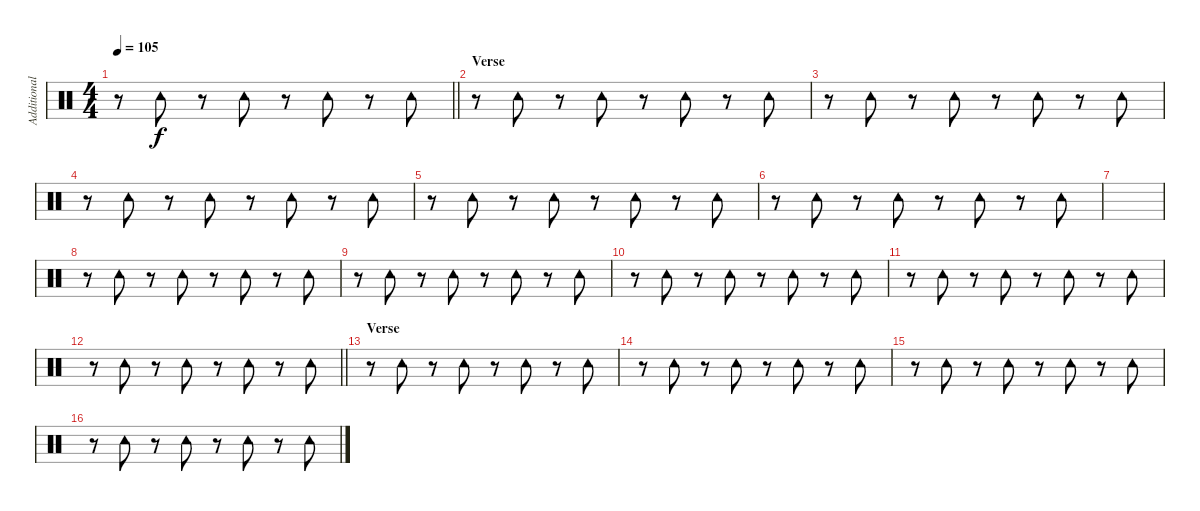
\track ("Additional percussion" "Additional") {instrument percussion}
\staff {score}
\articulation defaults
\ts (4 4)
\tempo 105
\clef neutral
\barLineRight lightlight
\ks c
r.8{dy f} "Tambourine (hit)".8 r.8 "Tambourine (hit)".8 r.8 "Tambourine (hit)".8 r.8 "Tambourine (hit)".8 |
\section ("" "Verse")
r.8 "Tambourine (hit)".8 r.8 "Tambourine (hit)".8 r.8 "Tambourine (hit)".8 r.8 "Tambourine (hit)".8 |
r.8 "Tambourine (hit)".8 r.8 "Tambourine (hit)".8 r.8 "Tambourine (hit)".8 r.8 "Tambourine (hit)".8 |
r.8 "Tambourine (hit)".8 r.8 "Tambourine (hit)".8 r.8 "Tambourine (hit)".8 r.8 "Tambourine (hit)".8 |
r.8 "Tambourine (hit)".8 r.8 "Tambourine (hit)".8 r.8 "Tambourine (hit)".8 r.8 "Tambourine (hit)".8 |
r.8 "Tambourine (hit)".8 r.8 "Tambourine (hit)".8 r.8 "Tambourine (hit)".8 r.8 "Tambourine (hit)".8 |
|
r.8 "Tambourine (hit)".8 r.8 "Tambourine (hit)".8 r.8 "Tambourine (hit)".8 r.8 "Tambourine (hit)".8 |
r.8 "Tambourine (hit)".8 r.8 "Tambourine (hit)".8 r.8 "Tambourine (hit)".8 r.8 "Tambourine (hit)".8 |
r.8 "Tambourine (hit)".8 r.8 "Tambourine (hit)".8 r.8 "Tambourine (hit)".8 r.8 "Tambourine (hit)".8 |
r.8 "Tambourine (hit)".8 r.8 "Tambourine (hit)".8 r.8 "Tambourine (hit)".8 r.8 "Tambourine (hit)".8 |
\barLineRight lightlight
r.8 "Tambourine (hit)".8 r.8 "Tambourine (hit)".8 r.8 "Tambourine (hit)".8 r.8 "Tambourine (hit)".8 |
\section ("" "Verse")
r.8 "Tambourine (hit)".8 r.8 "Tambourine (hit)".8 r.8 "Tambourine (hit)".8 r.8 "Tambourine (hit)".8 |
r.8 "Tambourine (hit)".8 r.8 "Tambourine (hit)".8 r.8 "Tambourine (hit)".8 r.8 "Tambourine (hit)".8 |
r.8 "Tambourine (hit)".8 r.8 "Tambourine (hit)".8 r.8 "Tambourine (hit)".8 r.8 "Tambourine (hit)".8 |
r.8 "Tambourine (hit)".8 r.8 "Tambourine (hit)".8 r.8 "Tambourine (hit)".8 r.8 "Tambourine (hit)".8
